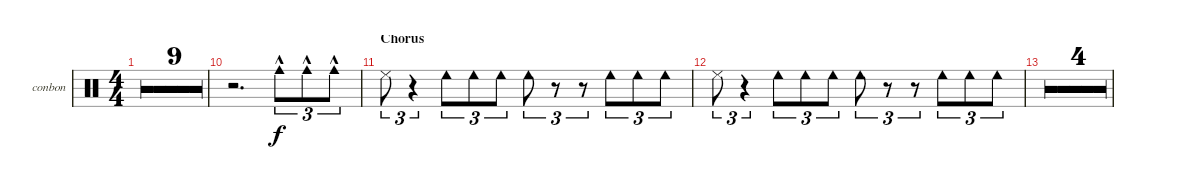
\defaultSystemsLayout 4
\bracketExtendMode groupsimilarinstruments
\firstSystemTrackNameOrientation horizontal
\otherSystemsTrackNameOrientation horizontal
\track ("Bongos N Congas" "conbon") {multiBarRest instrument percussion}
\staff {score}
\articulation defaults
\ts (4 4)
\tempo 123
\clef neutral
\simile firstofdouble
\ks c
|
\simile secondofdouble
|
\simile firstofdouble
|
\simile secondofdouble
|
|
|
|
|
|
r.2{d} "Cowbell medium (hit)"{hac}.8{tu (3 2)} "Cowbell medium (hit)"{hac}.8{tu (3 2)} "Cowbell medium (hit)"{hac}.8{tu (3 2)} |
\section ("" "Chorus")
"Cowbell low (tip)".8{tu (3 2)} r.4{tu (3 2)} "Cowbell low (hit)".8{tu (3 2)} "Cowbell low (hit)".8{tu (3 2)} "Cowbell low (hit)".8{tu (3 2)} "Cowbell low (hit)".8{tu (3 2)} r.8{tu (3 2)} r.8{tu (3 2)} "Cowbell low (hit)".8{tu (3 2)} "Cowbell low (hit)".8{tu (3 2)} "Cowbell low (hit)".8{tu (3 2)} |
"Cowbell low (tip)".8{tu (3 2)} r.4{tu (3 2)} "Cowbell low (hit)".8{tu (3 2)} "Cowbell low (hit)".8{tu (3 2)} "Cowbell low (hit)".8{tu (3 2)} "Cowbell low (hit)".8{tu (3 2)} r.8{tu (3 2)} r.8{tu (3 2)} "Cowbell low (hit)".8{tu (3 2)} "Cowbell low (hit)".8{tu (3 2)} "Cowbell low (hit)".8{tu (3 2)} |
\simile firstofdouble
|
\simile secondofdouble
|
\simile firstofdouble
|
\simile secondofdouble
